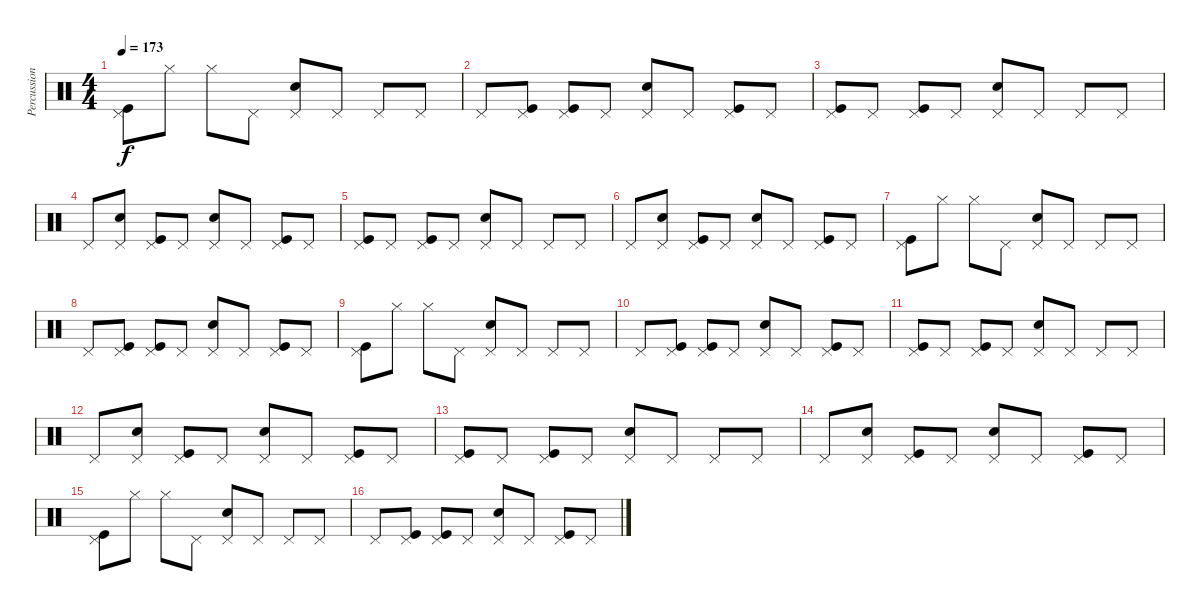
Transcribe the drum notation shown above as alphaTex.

\track ("Percussion" "Percussion") {instrument percussion}
\staff {score}
\articulation defaults
\ts (4 4)
\tempo 173
\clef neutral
\ks c
("Kick (hit)" "Pedal Hi-Hat (hit)").8{dy f} "Hi-Hat (closed)".8 "Hi-Hat (closed)".8 "Pedal Hi-Hat (hit)".8 ("Snare (hit) 2" "Pedal Hi-Hat (hit)").8 "Pedal Hi-Hat (hit)".8 "Pedal Hi-Hat (hit)".8 "Pedal Hi-Hat (hit)".8 |
"Pedal Hi-Hat (hit)".8 ("Kick (hit)" "Pedal Hi-Hat (hit)").8 ("Kick (hit)" "Pedal Hi-Hat (hit)").8 "Pedal Hi-Hat (hit)".8 ("Snare (hit) 2" "Pedal Hi-Hat (hit)").8 "Pedal Hi-Hat (hit)".8 ("Kick (hit)" "Pedal Hi-Hat (hit)").8 "Pedal Hi-Hat (hit)".8 |
("Kick (hit)" "Pedal Hi-Hat (hit)").8 "Pedal Hi-Hat (hit)".8 ("Kick (hit)" "Pedal Hi-Hat (hit)").8 "Pedal Hi-Hat (hit)".8 ("Snare (hit) 2" "Pedal Hi-Hat (hit)").8 "Pedal Hi-Hat (hit)".8 "Pedal Hi-Hat (hit)".8 "Pedal Hi-Hat (hit)".8 |
"Pedal Hi-Hat (hit)".8 ("Snare (hit) 2" "Pedal Hi-Hat (hit)").8 ("Kick (hit)" "Pedal Hi-Hat (hit)").8 "Pedal Hi-Hat (hit)".8 ("Snare (hit) 2" "Pedal Hi-Hat (hit)").8 "Pedal Hi-Hat (hit)".8 ("Kick (hit)" "Pedal Hi-Hat (hit)").8 "Pedal Hi-Hat (hit)".8 |
("Kick (hit)" "Pedal Hi-Hat (hit)").8 "Pedal Hi-Hat (hit)".8 ("Kick (hit)" "Pedal Hi-Hat (hit)").8 "Pedal Hi-Hat (hit)".8 ("Snare (hit) 2" "Pedal Hi-Hat (hit)").8 "Pedal Hi-Hat (hit)".8 "Pedal Hi-Hat (hit)".8 "Pedal Hi-Hat (hit)".8 |
"Pedal Hi-Hat (hit)".8 ("Snare (hit) 2" "Pedal Hi-Hat (hit)").8 ("Kick (hit)" "Pedal Hi-Hat (hit)").8 "Pedal Hi-Hat (hit)".8 ("Snare (hit) 2" "Pedal Hi-Hat (hit)").8 "Pedal Hi-Hat (hit)".8 ("Kick (hit)" "Pedal Hi-Hat (hit)").8 "Pedal Hi-Hat (hit)".8 |
("Kick (hit)" "Pedal Hi-Hat (hit)").8 "Hi-Hat (closed)".8 "Hi-Hat (closed)".8 "Pedal Hi-Hat (hit)".8 ("Snare (hit) 2" "Pedal Hi-Hat (hit)").8 "Pedal Hi-Hat (hit)".8 "Pedal Hi-Hat (hit)".8 "Pedal Hi-Hat (hit)".8 |
"Pedal Hi-Hat (hit)".8 ("Kick (hit)" "Pedal Hi-Hat (hit)").8 ("Kick (hit)" "Pedal Hi-Hat (hit)").8 "Pedal Hi-Hat (hit)".8 ("Snare (hit) 2" "Pedal Hi-Hat (hit)").8 "Pedal Hi-Hat (hit)".8 ("Kick (hit)" "Pedal Hi-Hat (hit)").8 "Pedal Hi-Hat (hit)".8 |
("Kick (hit)" "Pedal Hi-Hat (hit)").8 "Hi-Hat (closed)".8 "Hi-Hat (closed)".8 "Pedal Hi-Hat (hit)".8 ("Snare (hit) 2" "Pedal Hi-Hat (hit)").8 "Pedal Hi-Hat (hit)".8 "Pedal Hi-Hat (hit)".8 "Pedal Hi-Hat (hit)".8 |
"Pedal Hi-Hat (hit)".8 ("Kick (hit)" "Pedal Hi-Hat (hit)").8 ("Kick (hit)" "Pedal Hi-Hat (hit)").8 "Pedal Hi-Hat (hit)".8 ("Snare (hit) 2" "Pedal Hi-Hat (hit)").8 "Pedal Hi-Hat (hit)".8 ("Kick (hit)" "Pedal Hi-Hat (hit)").8 "Pedal Hi-Hat (hit)".8 |
("Kick (hit)" "Pedal Hi-Hat (hit)").8 "Pedal Hi-Hat (hit)".8 ("Kick (hit)" "Pedal Hi-Hat (hit)").8 "Pedal Hi-Hat (hit)".8 ("Snare (hit) 2" "Pedal Hi-Hat (hit)").8 "Pedal Hi-Hat (hit)".8 "Pedal Hi-Hat (hit)".8 "Pedal Hi-Hat (hit)".8 |
"Pedal Hi-Hat (hit)".8 ("Snare (hit) 2" "Pedal Hi-Hat (hit)").8 ("Kick (hit)" "Pedal Hi-Hat (hit)").8 "Pedal Hi-Hat (hit)".8 ("Snare (hit) 2" "Pedal Hi-Hat (hit)").8 "Pedal Hi-Hat (hit)".8 ("Kick (hit)" "Pedal Hi-Hat (hit)").8 "Pedal Hi-Hat (hit)".8 |
("Kick (hit)" "Pedal Hi-Hat (hit)").8 "Pedal Hi-Hat (hit)".8 ("Kick (hit)" "Pedal Hi-Hat (hit)").8 "Pedal Hi-Hat (hit)".8 ("Snare (hit) 2" "Pedal Hi-Hat (hit)").8 "Pedal Hi-Hat (hit)".8 "Pedal Hi-Hat (hit)".8 "Pedal Hi-Hat (hit)".8 |
"Pedal Hi-Hat (hit)".8 ("Snare (hit) 2" "Pedal Hi-Hat (hit)").8 ("Kick (hit)" "Pedal Hi-Hat (hit)").8 "Pedal Hi-Hat (hit)".8 ("Snare (hit) 2" "Pedal Hi-Hat (hit)").8 "Pedal Hi-Hat (hit)".8 ("Kick (hit)" "Pedal Hi-Hat (hit)").8 "Pedal Hi-Hat (hit)".8 |
("Kick (hit)" "Pedal Hi-Hat (hit)").8 "Hi-Hat (closed)".8 "Hi-Hat (closed)".8 "Pedal Hi-Hat (hit)".8 ("Snare (hit) 2" "Pedal Hi-Hat (hit)").8 "Pedal Hi-Hat (hit)".8 "Pedal Hi-Hat (hit)".8 "Pedal Hi-Hat (hit)".8 |
"Pedal Hi-Hat (hit)".8 ("Kick (hit)" "Pedal Hi-Hat (hit)").8 ("Kick (hit)" "Pedal Hi-Hat (hit)").8 "Pedal Hi-Hat (hit)".8 ("Snare (hit) 2" "Pedal Hi-Hat (hit)").8 "Pedal Hi-Hat (hit)".8 ("Kick (hit)" "Pedal Hi-Hat (hit)").8 "Pedal Hi-Hat (hit)".8
